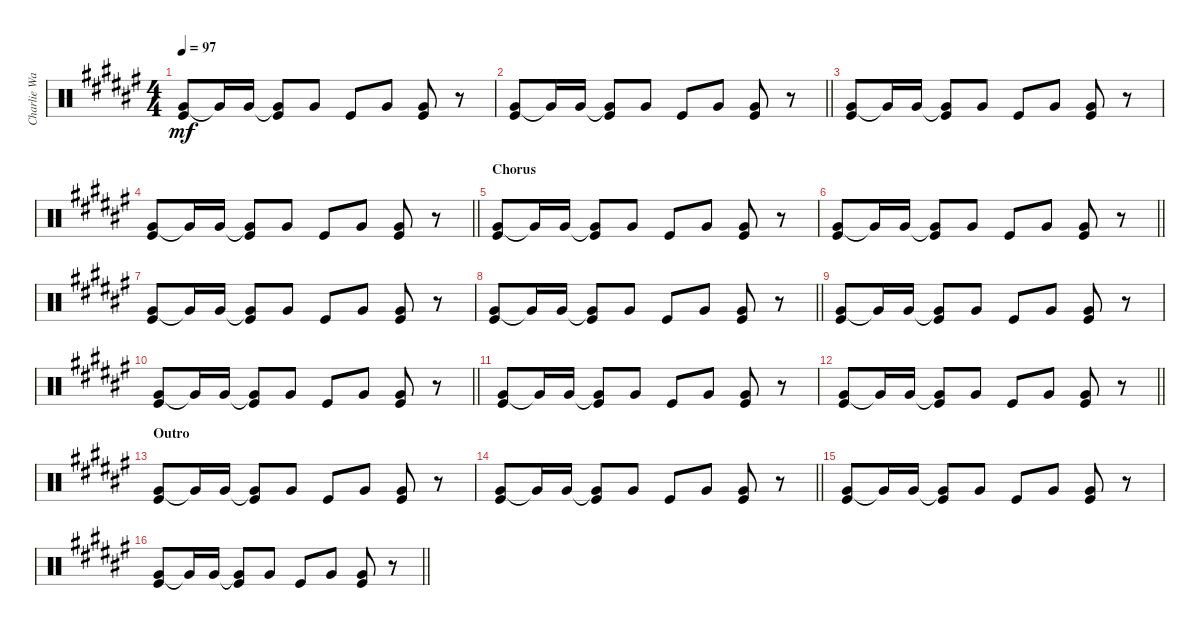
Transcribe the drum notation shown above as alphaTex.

\track ("Charlie Watts" "Charlie Wa") {instrument percussion}
\staff {score}
\articulation defaults
\ts (4 4)
\tempo 97
\clef neutral
\ks f#
("Very Low Tom (hit)" "Kick (hit)").8{dy mf} "Very Low Tom (hit)"{t}.16 "Very Low Tom (hit)".16 ("Very Low Tom (hit)"{t} "Kick (hit)").8 "Very Low Tom (hit)".8 "Kick (hit)".8 "Very Low Tom (hit)".8 ("Very Low Tom (hit)" "Kick (hit)").8 r.8 |
\barLineRight lightlight
("Very Low Tom (hit)" "Kick (hit)").8 "Very Low Tom (hit)"{t}.16 "Very Low Tom (hit)".16 ("Very Low Tom (hit)"{t} "Kick (hit)").8 "Very Low Tom (hit)".8 "Kick (hit)".8 "Very Low Tom (hit)".8 ("Very Low Tom (hit)" "Kick (hit)").8 r.8 |
("Very Low Tom (hit)" "Kick (hit)").8 "Very Low Tom (hit)"{t}.16 "Very Low Tom (hit)".16 ("Very Low Tom (hit)"{t} "Kick (hit)").8 "Very Low Tom (hit)".8 "Kick (hit)".8 "Very Low Tom (hit)".8 ("Very Low Tom (hit)" "Kick (hit)").8 r.8 |
\barLineRight lightlight
("Very Low Tom (hit)" "Kick (hit)").8 "Very Low Tom (hit)"{t}.16 "Very Low Tom (hit)".16 ("Very Low Tom (hit)"{t} "Kick (hit)").8 "Very Low Tom (hit)".8 "Kick (hit)".8 "Very Low Tom (hit)".8 ("Very Low Tom (hit)" "Kick (hit)").8 r.8 |
\section ("" "Chorus")
("Very Low Tom (hit)" "Kick (hit)").8 "Very Low Tom (hit)"{t}.16 "Very Low Tom (hit)".16 ("Very Low Tom (hit)"{t} "Kick (hit)").8 "Very Low Tom (hit)".8 "Kick (hit)".8 "Very Low Tom (hit)".8 ("Very Low Tom (hit)" "Kick (hit)").8 r.8 |
\barLineRight lightlight
("Very Low Tom (hit)" "Kick (hit)").8 "Very Low Tom (hit)"{t}.16 "Very Low Tom (hit)".16 ("Very Low Tom (hit)"{t} "Kick (hit)").8 "Very Low Tom (hit)".8 "Kick (hit)".8 "Very Low Tom (hit)".8 ("Very Low Tom (hit)" "Kick (hit)").8 r.8 |
("Very Low Tom (hit)" "Kick (hit)").8 "Very Low Tom (hit)"{t}.16 "Very Low Tom (hit)".16 ("Very Low Tom (hit)"{t} "Kick (hit)").8 "Very Low Tom (hit)".8 "Kick (hit)".8 "Very Low Tom (hit)".8 ("Very Low Tom (hit)" "Kick (hit)").8 r.8 |
\barLineRight lightlight
("Very Low Tom (hit)" "Kick (hit)").8 "Very Low Tom (hit)"{t}.16 "Very Low Tom (hit)".16 ("Very Low Tom (hit)"{t} "Kick (hit)").8 "Very Low Tom (hit)".8 "Kick (hit)".8 "Very Low Tom (hit)".8 ("Very Low Tom (hit)" "Kick (hit)").8 r.8 |
("Very Low Tom (hit)" "Kick (hit)").8 "Very Low Tom (hit)"{t}.16 "Very Low Tom (hit)".16 ("Very Low Tom (hit)"{t} "Kick (hit)").8 "Very Low Tom (hit)".8 "Kick (hit)".8 "Very Low Tom (hit)".8 ("Very Low Tom (hit)" "Kick (hit)").8 r.8 |
\barLineRight lightlight
("Very Low Tom (hit)" "Kick (hit)").8 "Very Low Tom (hit)"{t}.16 "Very Low Tom (hit)".16 ("Very Low Tom (hit)"{t} "Kick (hit)").8 "Very Low Tom (hit)".8 "Kick (hit)".8 "Very Low Tom (hit)".8 ("Very Low Tom (hit)" "Kick (hit)").8 r.8 |
("Very Low Tom (hit)" "Kick (hit)").8 "Very Low Tom (hit)"{t}.16 "Very Low Tom (hit)".16 ("Very Low Tom (hit)"{t} "Kick (hit)").8 "Very Low Tom (hit)".8 "Kick (hit)".8 "Very Low Tom (hit)".8 ("Very Low Tom (hit)" "Kick (hit)").8 r.8 |
\barLineRight lightlight
("Very Low Tom (hit)" "Kick (hit)").8 "Very Low Tom (hit)"{t}.16 "Very Low Tom (hit)".16 ("Very Low Tom (hit)"{t} "Kick (hit)").8 "Very Low Tom (hit)".8 "Kick (hit)".8 "Very Low Tom (hit)".8 ("Very Low Tom (hit)" "Kick (hit)").8 r.8 |
\section ("" "Outro")
("Very Low Tom (hit)" "Kick (hit)").8 "Very Low Tom (hit)"{t}.16 "Very Low Tom (hit)".16 ("Very Low Tom (hit)"{t} "Kick (hit)").8 "Very Low Tom (hit)".8 "Kick (hit)".8 "Very Low Tom (hit)".8 ("Very Low Tom (hit)" "Kick (hit)").8 r.8 |
\barLineRight lightlight
("Very Low Tom (hit)" "Kick (hit)").8 "Very Low Tom (hit)"{t}.16 "Very Low Tom (hit)".16 ("Very Low Tom (hit)"{t} "Kick (hit)").8 "Very Low Tom (hit)".8 "Kick (hit)".8 "Very Low Tom (hit)".8 ("Very Low Tom (hit)" "Kick (hit)").8 r.8 |
("Very Low Tom (hit)" "Kick (hit)").8 "Very Low Tom (hit)"{t}.16 "Very Low Tom (hit)".16 ("Very Low Tom (hit)"{t} "Kick (hit)").8 "Very Low Tom (hit)".8 "Kick (hit)".8 "Very Low Tom (hit)".8 ("Very Low Tom (hit)" "Kick (hit)").8 r.8 |
\barLineRight lightlight
("Very Low Tom (hit)" "Kick (hit)").8 "Very Low Tom (hit)"{t}.16 "Very Low Tom (hit)".16 ("Very Low Tom (hit)"{t} "Kick (hit)").8 "Very Low Tom (hit)".8 "Kick (hit)".8 "Very Low Tom (hit)".8 ("Very Low Tom (hit)" "Kick (hit)").8 r.8
